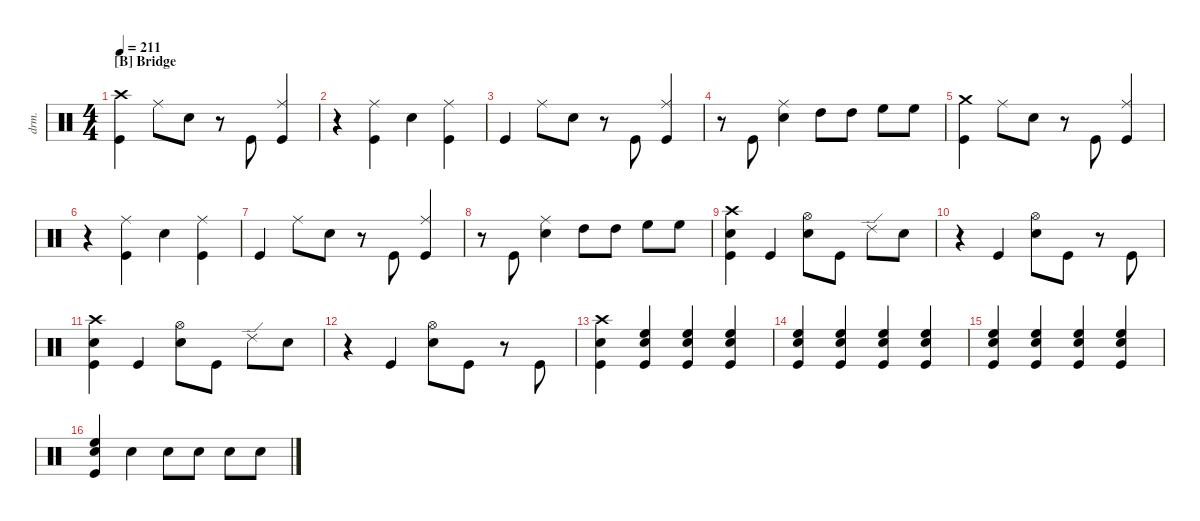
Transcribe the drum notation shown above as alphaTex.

\defaultSystemsLayout 4
\hideDynamics
\bracketExtendMode nobrackets
\track ("Drums" "drm.") {instrument percussion}
\staff {score}
\articulation defaults
\ts (4 4)
\section ("B" "Bridge")
\tempo 211
\clef neutral
\ks c
("Kick (hit)" "Crash high (hit)"{acc #}).4{dy fff beam Down} "Ride (middle)"{acc #}.8{dy ff beam Down} "Snare (hit) 2".8{beam Down} r.8{beam Down} "Kick (hit)".8{dy mf beam Up} ("Kick (hit)" "Ride (middle)"{acc #}).4{dy ff beam Up} |
r.4{beam Down} ("Kick (hit)" "Ride (middle)"{acc #}).4{beam Down} "Snare (hit) 2".4{dy fff beam Down} ("Kick (hit)" "Ride (middle)"{acc #}).4{dy f beam Down} |
"Kick (hit)".4{dy fff beam Up} "Ride (middle)"{acc #}.8{dy f beam Down} "Snare (hit) 2".8{dy ff beam Down} r.8{beam Down} "Kick (hit)".8{dy mf beam Up} ("Kick (hit)" "Ride (middle)"{acc #}).4{dy ff beam Up} |
r.8{beam Down} "Kick (hit)".8{beam Up} ("Snare (hit) 2" "Ride (middle)"{acc #}).4{beam Down} "High Tom (hit)".8{beam Down} "High Tom (hit)".8{dy mf beam Down} "High Floor Tom (hit)".8{dy ff beam Down} "High Floor Tom (hit)".8{dy mf beam Down} |
("Kick (hit)" "Crash medium (hit)").4{dy fff beam Down} "Ride (middle)"{acc #}.8{dy ff beam Down} "Snare (hit) 2".8{beam Down} r.8{beam Down} "Kick (hit)".8{dy mf beam Up} ("Kick (hit)" "Ride (middle)"{acc #}).4{dy ff beam Up} |
r.4{beam Down} ("Kick (hit)" "Ride (middle)"{acc #}).4{beam Down} "Snare (hit) 2".4{dy fff beam Down} ("Kick (hit)" "Ride (middle)"{acc #}).4{dy f beam Down} |
"Kick (hit)".4{dy fff beam Up} "Ride (middle)"{acc #}.8{dy f beam Down} "Snare (hit) 2".8{dy ff beam Down} r.8{beam Down} "Kick (hit)".8{dy mf beam Up} ("Kick (hit)" "Ride (middle)"{acc #}).4{dy ff beam Up} |
r.8{beam Down} "Kick (hit)".8{beam Up} ("Snare (hit) 2" "Ride (middle)"{acc #}).4{dy fff beam Down} "High Tom (hit)".8{dy ff beam Down} "High Tom (hit)".8{dy mf beam Down} "High Floor Tom (hit)".8{dy ff beam Down} "High Floor Tom (hit)".8{dy mf beam Down} |
("Kick (hit)" "Snare (hit) 2" "Crash high (hit)"{acc #}).4{dy ff beam Down} "Kick (hit)".4{beam Up} ("Snare (hit) 2" "Hi-Hat (open)"{acc #}).8{beam Down} "Kick (hit)".8{beam Down} "Ride (edge) 2".8{beam Down} "Snare (hit) 2".8{beam Down} |
r.4{beam Down} "Kick (hit)".4{beam Up} ("Snare (hit) 2" "Hi-Hat (open)"{acc #}).8{beam Down} "Kick (hit)".8{beam Down} r.8{beam Down} "Kick (hit)".8{beam Up} |
("Snare (hit) 2" "Kick (hit)" "Crash high (hit)"{acc #}).4{beam Down} "Kick (hit)".4{beam Up} ("Snare (hit) 2" "Hi-Hat (open)"{acc #}).8{beam Down} "Kick (hit)".8{beam Down} "Ride (edge) 2".8{beam Down} "Snare (hit) 2".8{beam Down} |
r.4{beam Down} "Kick (hit)".4{beam Up} ("Snare (hit) 2" "Hi-Hat (open)"{acc #}).8{beam Down} "Kick (hit)".8{beam Down} r.8{beam Down} "Kick (hit)".8{beam Up} |
("Snare (hit) 2" "Kick (hit)" "Crash high (hit)"{acc #}).4{beam Down} ("Kick (hit)" "Snare (hit) 2" "High Floor Tom (hit)").4{beam Up} ("Snare (hit) 2" "Kick (hit)" "High Floor Tom (hit)").4{beam Up} ("Snare (hit) 2" "Kick (hit)" "High Floor Tom (hit)").4{beam Up} |
("Kick (hit)" "Snare (hit) 2" "High Floor Tom (hit)").4{beam Up} ("Kick (hit)" "Snare (hit) 2" "High Floor Tom (hit)").4{beam Up} ("Snare (hit) 2" "Kick (hit)" "High Floor Tom (hit)").4{beam Up} ("Kick (hit)" "Snare (hit) 2" "High Floor Tom (hit)").4{beam Up} |
("Kick (hit)" "Snare (hit) 2" "High Floor Tom (hit)").4{beam Up} ("Snare (hit) 2" "Kick (hit)" "High Floor Tom (hit)").4{beam Up} ("Kick (hit)" "Snare (hit) 2" "High Floor Tom (hit)").4{beam Up} ("Kick (hit)" "Snare (hit) 2" "High Floor Tom (hit)").4{beam Up} |
("Kick (hit)" "Snare (hit) 2" "High Floor Tom (hit)").4{beam Up} "Snare (hit) 2".4{beam Down} "Snare (hit) 2".8{dy f beam Down} "Snare (hit) 2".8{dy mf beam Down} "Snare (hit) 2".8{dy f beam Down} "Snare (hit) 2".8{dy mf beam Down}
